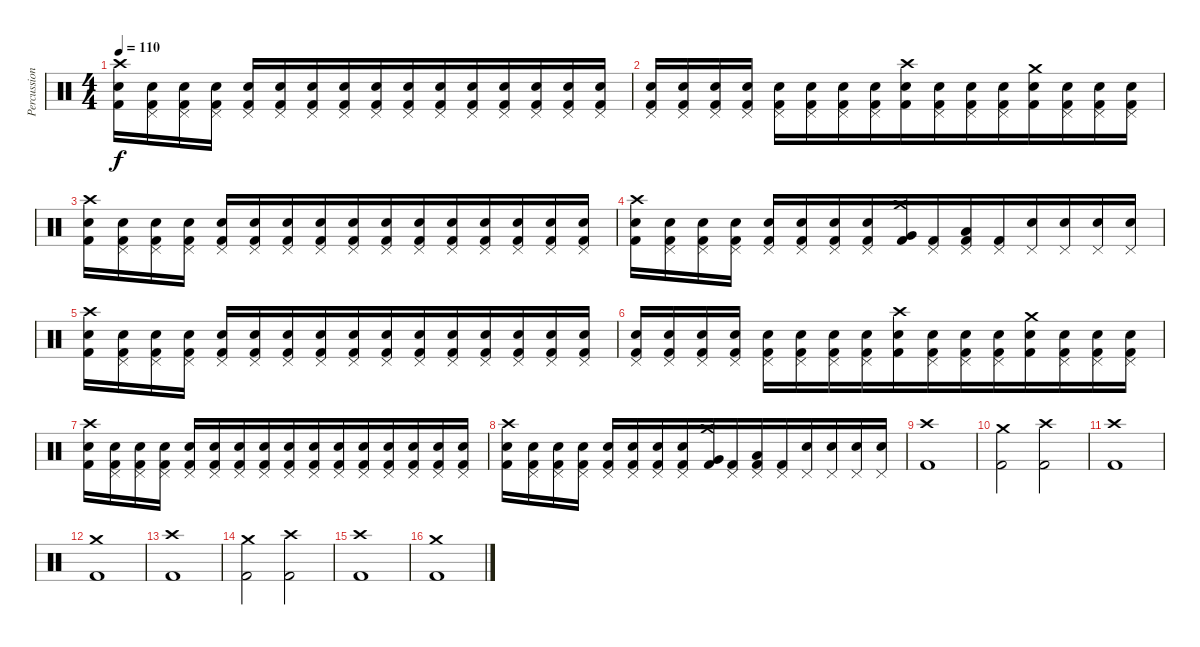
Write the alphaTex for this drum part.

\track ("Percussion" "Percussion") {instrument percussion bank 36}
\staff {score}
\articulation defaults
\ts (4 4)
\tempo 110
\clef neutral
\ks c
("Crash high (hit)" "Electric Snare (hit)" "Kick (hit) 2").16{dy f} ("Pedal Hi-Hat (hit)" "Electric Snare (hit)" "Kick (hit) 2").16 ("Pedal Hi-Hat (hit)" "Electric Snare (hit)" "Kick (hit) 2").16 ("Pedal Hi-Hat (hit)" "Electric Snare (hit)" "Kick (hit) 2").16 ("Pedal Hi-Hat (hit)" "Electric Snare (hit)" "Kick (hit) 2").16 ("Pedal Hi-Hat (hit)" "Electric Snare (hit)" "Kick (hit) 2").16 ("Pedal Hi-Hat (hit)" "Electric Snare (hit)" "Kick (hit) 2").16 ("Pedal Hi-Hat (hit)" "Electric Snare (hit)" "Kick (hit) 2").16{beam merge} ("Pedal Hi-Hat (hit)" "Electric Snare (hit)" "Kick (hit) 2").16{beam merge} ("Pedal Hi-Hat (hit)" "Electric Snare (hit)" "Kick (hit) 2").16{beam merge} ("Pedal Hi-Hat (hit)" "Electric Snare (hit)" "Kick (hit) 2").16 ("Pedal Hi-Hat (hit)" "Electric Snare (hit)" "Kick (hit) 2").16{beam merge} ("Pedal Hi-Hat (hit)" "Electric Snare (hit)" "Kick (hit) 2").16{beam merge} ("Pedal Hi-Hat (hit)" "Electric Snare (hit)" "Kick (hit) 2").16{beam merge} ("Pedal Hi-Hat (hit)" "Electric Snare (hit)" "Kick (hit) 2").16 ("Pedal Hi-Hat (hit)" "Electric Snare (hit)" "Kick (hit) 2").16 |
("Pedal Hi-Hat (hit)" "Electric Snare (hit)" "Kick (hit) 2").16 ("Pedal Hi-Hat (hit)" "Electric Snare (hit)" "Kick (hit) 2").16 ("Pedal Hi-Hat (hit)" "Electric Snare (hit)" "Kick (hit) 2").16 ("Pedal Hi-Hat (hit)" "Electric Snare (hit)" "Kick (hit) 2").16 ("Pedal Hi-Hat (hit)" "Electric Snare (hit)" "Kick (hit) 2").16 ("Pedal Hi-Hat (hit)" "Electric Snare (hit)" "Kick (hit) 2").16 ("Pedal Hi-Hat (hit)" "Electric Snare (hit)" "Kick (hit) 2").16 ("Pedal Hi-Hat (hit)" "Electric Snare (hit)" "Kick (hit) 2").16{beam merge} ("Crash high (hit)" "Electric Snare (hit)" "Kick (hit) 2").16{beam merge} ("Pedal Hi-Hat (hit)" "Electric Snare (hit)" "Kick (hit) 2").16{beam merge} ("Pedal Hi-Hat (hit)" "Electric Snare (hit)" "Kick (hit) 2").16 ("Pedal Hi-Hat (hit)" "Electric Snare (hit)" "Kick (hit) 2").16{beam merge} ("Crash medium (hit)" "Electric Snare (hit)" "Kick (hit) 2").16{beam merge} ("Pedal Hi-Hat (hit)" "Electric Snare (hit)" "Kick (hit) 2").16{beam merge} ("Pedal Hi-Hat (hit)" "Electric Snare (hit)" "Kick (hit) 2").16 ("Pedal Hi-Hat (hit)" "Electric Snare (hit)" "Kick (hit) 2").16 |
("Crash high (hit)" "Electric Snare (hit)" "Kick (hit) 2").16 ("Pedal Hi-Hat (hit)" "Electric Snare (hit)" "Kick (hit) 2").16 ("Pedal Hi-Hat (hit)" "Electric Snare (hit)" "Kick (hit) 2").16 ("Pedal Hi-Hat (hit)" "Electric Snare (hit)" "Kick (hit) 2").16 ("Pedal Hi-Hat (hit)" "Electric Snare (hit)" "Kick (hit) 2").16 ("Pedal Hi-Hat (hit)" "Electric Snare (hit)" "Kick (hit) 2").16 ("Pedal Hi-Hat (hit)" "Electric Snare (hit)" "Kick (hit) 2").16 ("Pedal Hi-Hat (hit)" "Electric Snare (hit)" "Kick (hit) 2").16{beam merge} ("Pedal Hi-Hat (hit)" "Electric Snare (hit)" "Kick (hit) 2").16{beam merge} ("Pedal Hi-Hat (hit)" "Electric Snare (hit)" "Kick (hit) 2").16{beam merge} ("Pedal Hi-Hat (hit)" "Electric Snare (hit)" "Kick (hit) 2").16 ("Pedal Hi-Hat (hit)" "Electric Snare (hit)" "Kick (hit) 2").16{beam merge} ("Pedal Hi-Hat (hit)" "Electric Snare (hit)" "Kick (hit) 2").16{beam merge} ("Pedal Hi-Hat (hit)" "Electric Snare (hit)" "Kick (hit) 2").16{beam merge} ("Pedal Hi-Hat (hit)" "Electric Snare (hit)" "Kick (hit) 2").16 ("Pedal Hi-Hat (hit)" "Electric Snare (hit)" "Kick (hit) 2").16 |
("Crash high (hit)" "Electric Snare (hit)" "Kick (hit) 2").16 ("Pedal Hi-Hat (hit)" "Electric Snare (hit)" "Kick (hit) 2").16 ("Pedal Hi-Hat (hit)" "Electric Snare (hit)" "Kick (hit) 2").16 ("Pedal Hi-Hat (hit)" "Electric Snare (hit)" "Kick (hit) 2").16 ("Pedal Hi-Hat (hit)" "Electric Snare (hit)" "Kick (hit) 2").16 ("Pedal Hi-Hat (hit)" "Electric Snare (hit)" "Kick (hit) 2").16 ("Pedal Hi-Hat (hit)" "Electric Snare (hit)" "Kick (hit) 2").16 ("Pedal Hi-Hat (hit)" "Electric Snare (hit)" "Kick (hit) 2").16{beam merge} ("Crash medium (hit)" "Very Low Tom (hit)" "Kick (hit) 2").16{beam merge} ("Pedal Hi-Hat (hit)" "Kick (hit) 2").16{beam merge} ("Pedal Hi-Hat (hit)" "Low Tom (hit)" "Kick (hit) 2").16 ("Pedal Hi-Hat (hit)" "Kick (hit) 2").16{beam merge} ("Pedal Hi-Hat (hit)" "Electric Snare (hit)").16{beam merge} ("Pedal Hi-Hat (hit)" "Electric Snare (hit)").16{beam merge} ("Pedal Hi-Hat (hit)" "Electric Snare (hit)").16 ("Pedal Hi-Hat (hit)" "Electric Snare (hit)").16 |
("Crash high (hit)" "Electric Snare (hit)" "Kick (hit) 2").16 ("Pedal Hi-Hat (hit)" "Electric Snare (hit)" "Kick (hit) 2").16 ("Pedal Hi-Hat (hit)" "Electric Snare (hit)" "Kick (hit) 2").16 ("Pedal Hi-Hat (hit)" "Electric Snare (hit)" "Kick (hit) 2").16 ("Pedal Hi-Hat (hit)" "Electric Snare (hit)" "Kick (hit) 2").16 ("Pedal Hi-Hat (hit)" "Electric Snare (hit)" "Kick (hit) 2").16 ("Pedal Hi-Hat (hit)" "Electric Snare (hit)" "Kick (hit) 2").16 ("Pedal Hi-Hat (hit)" "Electric Snare (hit)" "Kick (hit) 2").16{beam merge} ("Pedal Hi-Hat (hit)" "Electric Snare (hit)" "Kick (hit) 2").16{beam merge} ("Pedal Hi-Hat (hit)" "Electric Snare (hit)" "Kick (hit) 2").16{beam merge} ("Pedal Hi-Hat (hit)" "Electric Snare (hit)" "Kick (hit) 2").16 ("Pedal Hi-Hat (hit)" "Electric Snare (hit)" "Kick (hit) 2").16{beam merge} ("Pedal Hi-Hat (hit)" "Electric Snare (hit)" "Kick (hit) 2").16{beam merge} ("Pedal Hi-Hat (hit)" "Electric Snare (hit)" "Kick (hit) 2").16{beam merge} ("Pedal Hi-Hat (hit)" "Electric Snare (hit)" "Kick (hit) 2").16 ("Pedal Hi-Hat (hit)" "Electric Snare (hit)" "Kick (hit) 2").16 |
("Pedal Hi-Hat (hit)" "Electric Snare (hit)" "Kick (hit) 2").16 ("Pedal Hi-Hat (hit)" "Electric Snare (hit)" "Kick (hit) 2").16 ("Pedal Hi-Hat (hit)" "Electric Snare (hit)" "Kick (hit) 2").16 ("Pedal Hi-Hat (hit)" "Electric Snare (hit)" "Kick (hit) 2").16 ("Pedal Hi-Hat (hit)" "Electric Snare (hit)" "Kick (hit) 2").16 ("Pedal Hi-Hat (hit)" "Electric Snare (hit)" "Kick (hit) 2").16 ("Pedal Hi-Hat (hit)" "Electric Snare (hit)" "Kick (hit) 2").16 ("Pedal Hi-Hat (hit)" "Electric Snare (hit)" "Kick (hit) 2").16{beam merge} ("Crash high (hit)" "Electric Snare (hit)" "Kick (hit) 2").16{beam merge} ("Pedal Hi-Hat (hit)" "Electric Snare (hit)" "Kick (hit) 2").16{beam merge} ("Pedal Hi-Hat (hit)" "Electric Snare (hit)" "Kick (hit) 2").16 ("Pedal Hi-Hat (hit)" "Electric Snare (hit)" "Kick (hit) 2").16{beam merge} ("Crash medium (hit)" "Electric Snare (hit)" "Kick (hit) 2").16{beam merge} ("Pedal Hi-Hat (hit)" "Electric Snare (hit)" "Kick (hit) 2").16{beam merge} ("Pedal Hi-Hat (hit)" "Electric Snare (hit)" "Kick (hit) 2").16 ("Pedal Hi-Hat (hit)" "Electric Snare (hit)" "Kick (hit) 2").16 |
("Crash high (hit)" "Electric Snare (hit)" "Kick (hit) 2").16 ("Pedal Hi-Hat (hit)" "Electric Snare (hit)" "Kick (hit) 2").16 ("Pedal Hi-Hat (hit)" "Electric Snare (hit)" "Kick (hit) 2").16 ("Pedal Hi-Hat (hit)" "Electric Snare (hit)" "Kick (hit) 2").16 ("Pedal Hi-Hat (hit)" "Electric Snare (hit)" "Kick (hit) 2").16 ("Pedal Hi-Hat (hit)" "Electric Snare (hit)" "Kick (hit) 2").16 ("Pedal Hi-Hat (hit)" "Electric Snare (hit)" "Kick (hit) 2").16 ("Pedal Hi-Hat (hit)" "Electric Snare (hit)" "Kick (hit) 2").16{beam merge} ("Pedal Hi-Hat (hit)" "Electric Snare (hit)" "Kick (hit) 2").16{beam merge} ("Pedal Hi-Hat (hit)" "Electric Snare (hit)" "Kick (hit) 2").16{beam merge} ("Pedal Hi-Hat (hit)" "Electric Snare (hit)" "Kick (hit) 2").16 ("Pedal Hi-Hat (hit)" "Electric Snare (hit)" "Kick (hit) 2").16{beam merge} ("Pedal Hi-Hat (hit)" "Electric Snare (hit)" "Kick (hit) 2").16{beam merge} ("Pedal Hi-Hat (hit)" "Electric Snare (hit)" "Kick (hit) 2").16{beam merge} ("Pedal Hi-Hat (hit)" "Electric Snare (hit)" "Kick (hit) 2").16 ("Pedal Hi-Hat (hit)" "Electric Snare (hit)" "Kick (hit) 2").16 |
("Crash high (hit)" "Electric Snare (hit)" "Kick (hit) 2").16 ("Pedal Hi-Hat (hit)" "Electric Snare (hit)" "Kick (hit) 2").16 ("Pedal Hi-Hat (hit)" "Electric Snare (hit)" "Kick (hit) 2").16 ("Pedal Hi-Hat (hit)" "Electric Snare (hit)" "Kick (hit) 2").16 ("Pedal Hi-Hat (hit)" "Electric Snare (hit)" "Kick (hit) 2").16 ("Pedal Hi-Hat (hit)" "Electric Snare (hit)" "Kick (hit) 2").16 ("Pedal Hi-Hat (hit)" "Electric Snare (hit)" "Kick (hit) 2").16 ("Pedal Hi-Hat (hit)" "Electric Snare (hit)" "Kick (hit) 2").16{beam merge} ("Crash medium (hit)" "Very Low Tom (hit)" "Kick (hit) 2").16{beam merge} ("Pedal Hi-Hat (hit)" "Kick (hit) 2").16{beam merge} ("Pedal Hi-Hat (hit)" "Low Tom (hit)" "Kick (hit) 2").16 ("Pedal Hi-Hat (hit)" "Kick (hit) 2").16{beam merge} ("Pedal Hi-Hat (hit)" "Electric Snare (hit)").16{beam merge} ("Pedal Hi-Hat (hit)" "Electric Snare (hit)").16{beam merge} ("Pedal Hi-Hat (hit)" "Electric Snare (hit)").16 ("Pedal Hi-Hat (hit)" "Electric Snare (hit)").16 |
("Crash high (hit)" "Kick (hit) 2").1 |
("Crash medium (hit)" "Kick (hit) 2").2 ("Crash high (hit)" "Kick (hit) 2").2 |
("Crash high (hit)" "Kick (hit) 2").1 |
("Crash medium (hit)" "Kick (hit) 2").1 |
("Crash high (hit)" "Kick (hit) 2").1 |
("Crash medium (hit)" "Kick (hit) 2").2 ("Crash high (hit)" "Kick (hit) 2").2 |
("Crash high (hit)" "Kick (hit) 2").1 |
("Crash medium (hit)" "Kick (hit) 2").1
